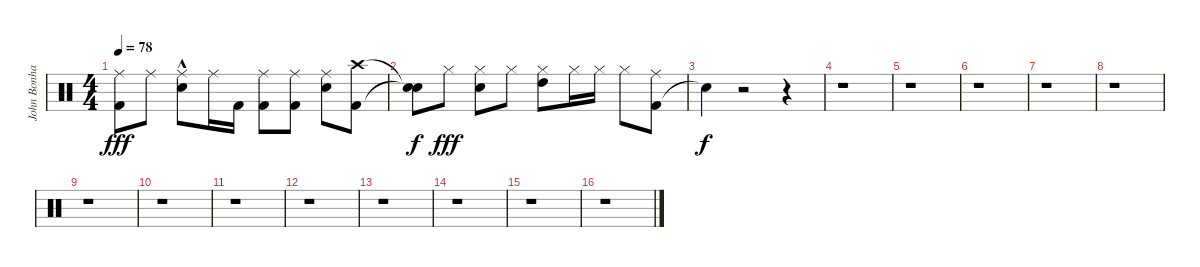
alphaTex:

\track ("John Bonham (Drums)" "John Bonha") {instrument percussion}
\staff {score}
\articulation defaults
\ts (4 4)
\tempo 78
\clef neutral
\ks c
("Kick (hit) 2" "Ride (middle)").8{dy fff} "Ride (middle)".8 ("Snare (hit) 2"{hac} "Ride (middle)").8 "Ride (middle)".16 "Kick (hit) 2".16 ("Kick (hit) 2" "Ride (middle)").8 ("Kick (hit) 2" "Ride (middle)").8 ("Snare (hit) 2" "Ride (middle)").8 ("Kick (hit) 2" "Crash high (hit)").8 |
("Snare (hit)"{t} "Snare (hit)"{t}).8{dy f} "Hi-Hat (closed)".8{dy fff} ("Snare (hit) 2" "Hi-Hat (closed)").8 "Hi-Hat (closed)".8 ("Hi-Hat (closed)" "High Tom (hit)").8 "Hi-Hat (closed)".16 "Hi-Hat (closed)".16 "Hi-Hat (closed)".8 ("Kick (hit) 2" "Ride (middle)").8 |
"Snare (hit)"{t}.4{dy f} r.2 r.4 |
r.1 |
r.1 |
r.1 |
r.1 |
r.1 |
r.1 |
r.1 |
r.1 |
r.1 |
r.1 |
r.1 |
r.1 |
r.1
